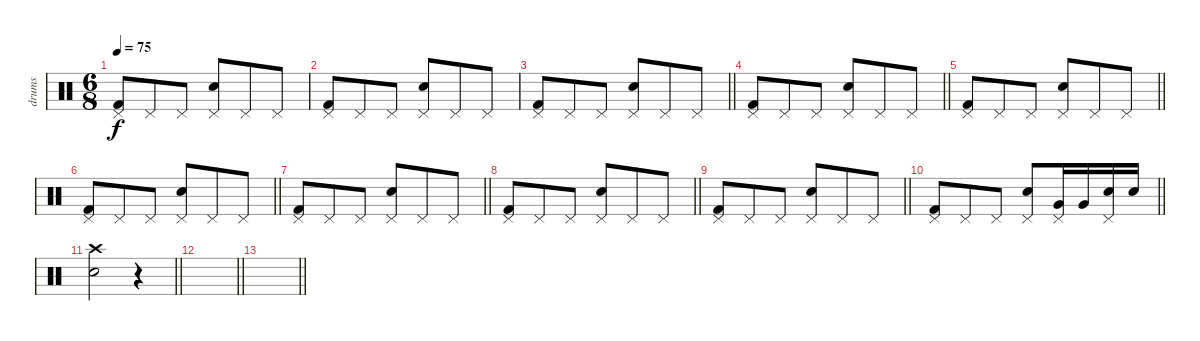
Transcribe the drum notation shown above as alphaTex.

\track ("drums" "drums") {instrument percussion}
\staff {score}
\articulation defaults
\ts (6 8)
\tempo 75
\clef neutral
\ks c
("Kick (hit) 2" "Pedal Hi-Hat (hit)").8{dy f} "Pedal Hi-Hat (hit)".8 "Pedal Hi-Hat (hit)".8 ("Electric Snare (hit)" "Pedal Hi-Hat (hit)").8 "Pedal Hi-Hat (hit)".8 "Pedal Hi-Hat (hit)".8 |
("Kick (hit) 2" "Pedal Hi-Hat (hit)").8 "Pedal Hi-Hat (hit)".8 "Pedal Hi-Hat (hit)".8 ("Electric Snare (hit)" "Pedal Hi-Hat (hit)").8 "Pedal Hi-Hat (hit)".8 "Pedal Hi-Hat (hit)".8 |
\barLineRight lightlight
("Kick (hit) 2" "Pedal Hi-Hat (hit)").8 "Pedal Hi-Hat (hit)".8 "Pedal Hi-Hat (hit)".8 ("Electric Snare (hit)" "Pedal Hi-Hat (hit)").8 "Pedal Hi-Hat (hit)".8 "Pedal Hi-Hat (hit)".8 |
\barLineRight lightlight
("Kick (hit) 2" "Pedal Hi-Hat (hit)").8 "Pedal Hi-Hat (hit)".8 "Pedal Hi-Hat (hit)".8 ("Electric Snare (hit)" "Pedal Hi-Hat (hit)").8 "Pedal Hi-Hat (hit)".8 "Pedal Hi-Hat (hit)".8 |
\barLineRight lightlight
("Kick (hit) 2" "Pedal Hi-Hat (hit)").8 "Pedal Hi-Hat (hit)".8 "Pedal Hi-Hat (hit)".8 ("Electric Snare (hit)" "Pedal Hi-Hat (hit)").8 "Pedal Hi-Hat (hit)".8 "Pedal Hi-Hat (hit)".8 |
\barLineRight lightlight
("Kick (hit) 2" "Pedal Hi-Hat (hit)").8 "Pedal Hi-Hat (hit)".8 "Pedal Hi-Hat (hit)".8 ("Electric Snare (hit)" "Pedal Hi-Hat (hit)").8 "Pedal Hi-Hat (hit)".8 "Pedal Hi-Hat (hit)".8 |
\barLineRight lightlight
("Kick (hit) 2" "Pedal Hi-Hat (hit)").8 "Pedal Hi-Hat (hit)".8 "Pedal Hi-Hat (hit)".8 ("Electric Snare (hit)" "Pedal Hi-Hat (hit)").8 "Pedal Hi-Hat (hit)".8 "Pedal Hi-Hat (hit)".8 |
\barLineRight lightlight
("Kick (hit) 2" "Pedal Hi-Hat (hit)").8 "Pedal Hi-Hat (hit)".8 "Pedal Hi-Hat (hit)".8 ("Electric Snare (hit)" "Pedal Hi-Hat (hit)").8 "Pedal Hi-Hat (hit)".8 "Pedal Hi-Hat (hit)".8 |
\barLineRight lightlight
("Kick (hit) 2" "Pedal Hi-Hat (hit)").8 "Pedal Hi-Hat (hit)".8 "Pedal Hi-Hat (hit)".8 ("Electric Snare (hit)" "Pedal Hi-Hat (hit)").8 "Pedal Hi-Hat (hit)".8 "Pedal Hi-Hat (hit)".8 |
\barLineRight lightlight
("Kick (hit) 2" "Pedal Hi-Hat (hit)").8 "Pedal Hi-Hat (hit)".8 "Pedal Hi-Hat (hit)".8 ("Electric Snare (hit)" "Pedal Hi-Hat (hit)").8 ("Very Low Tom (hit)" "Pedal Hi-Hat (hit)").16 "Very Low Tom (hit)".16 ("Electric Snare (hit)" "Pedal Hi-Hat (hit)").16 "Electric Snare (hit)".16 |
\barLineRight lightlight
("Electric Snare (hit)" "Crash high (hit)").2 r.4 |
\barLineRight lightlight
|
\barLineRight lightlight
